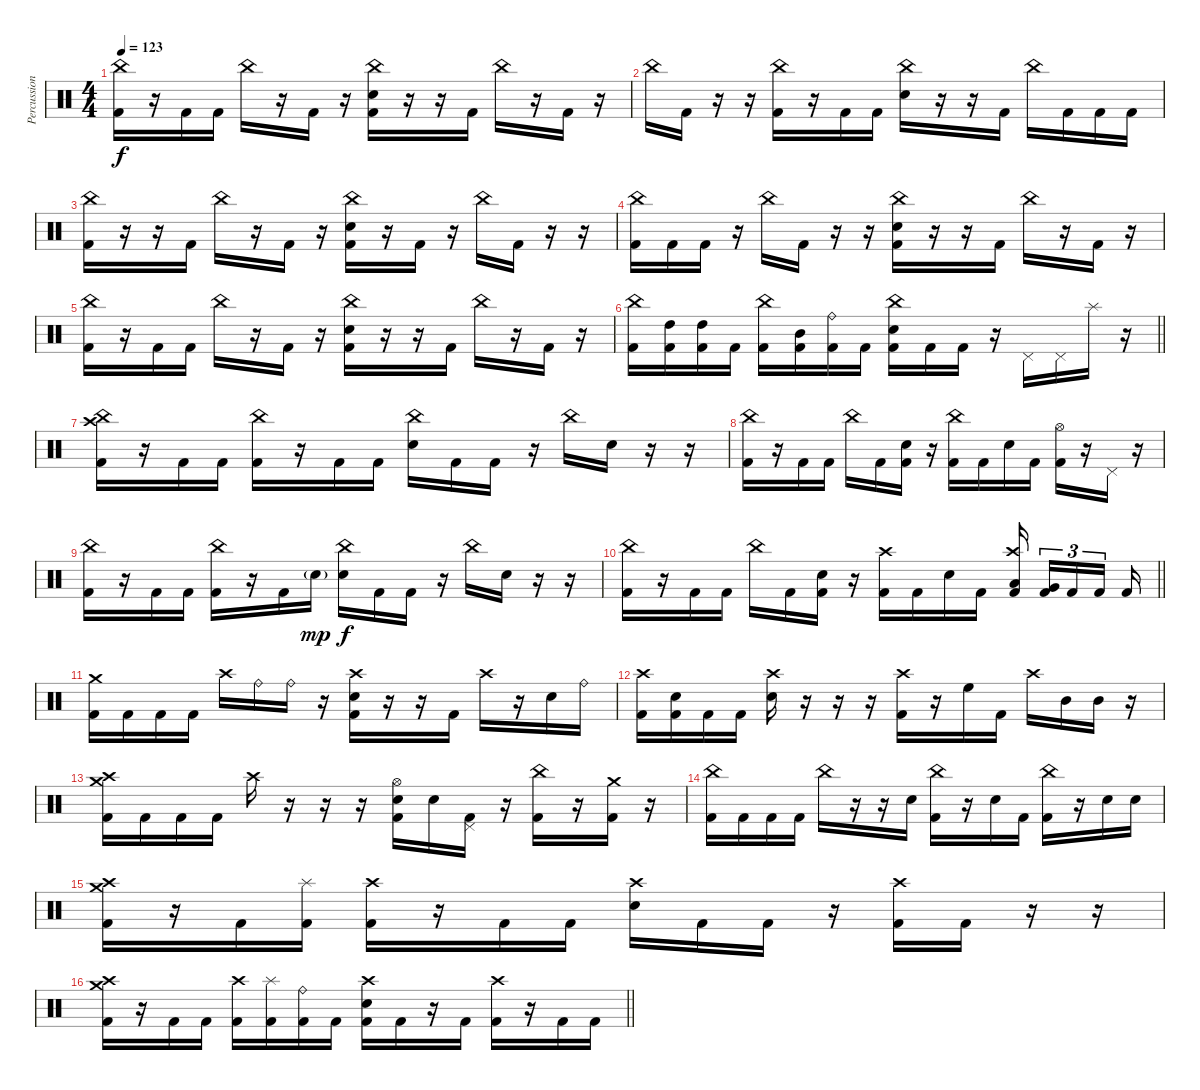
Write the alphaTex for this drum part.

\track ("Percussion" "Percussion") {instrument percussion}
\staff {score}
\articulation defaults
\ts (4 4)
\tempo 123
\clef neutral
\ks c
("China (hit)" "Kick (hit) 2").16{dy f} r.16 "Kick (hit) 2".16 "Kick (hit) 2".16 "China (hit)".16 r.16 "Kick (hit) 2".16 r.16 ("China (hit)" "Electric Snare (hit)" "Kick (hit) 2").16 r.16 r.16 "Kick (hit) 2".16 "China (hit)".16 r.16 "Kick (hit) 2".16 r.16 |
"China (hit)".16 "Kick (hit) 2".16 r.16 r.16 ("China (hit)" "Kick (hit) 2").16 r.16 "Kick (hit) 2".16 "Kick (hit) 2".16 ("China (hit)" "Electric Snare (hit)").16 r.16 r.16 "Kick (hit) 2".16 "China (hit)".16 "Kick (hit) 2".16 "Kick (hit) 2".16 "Kick (hit) 2".16 |
("China (hit)" "Kick (hit) 2").16 r.16 r.16 "Kick (hit) 2".16 "China (hit)".16 r.16 "Kick (hit) 2".16 r.16 ("China (hit)" "Electric Snare (hit)" "Kick (hit) 2").16 r.16 "Kick (hit) 2".16 r.16 "China (hit)".16 "Kick (hit) 2".16 r.16 r.16 |
("China (hit)" "Kick (hit) 2").16 "Kick (hit) 2".16 "Kick (hit) 2".16 r.16 "China (hit)".16 "Kick (hit) 2".16 r.16 r.16 ("China (hit)" "Electric Snare (hit)" "Kick (hit) 2").16 r.16 r.16 "Kick (hit) 2".16 "China (hit)".16 r.16 "Kick (hit) 2".16 r.16 |
("China (hit)" "Kick (hit) 2").16 r.16 "Kick (hit) 2".16 "Kick (hit) 2".16 "China (hit)".16 r.16 "Kick (hit) 2".16 r.16 ("China (hit)" "Electric Snare (hit)" "Kick (hit) 2").16 r.16 r.16 "Kick (hit) 2".16 "China (hit)".16 r.16 "Kick (hit) 2".16 r.16 |
\barLineRight lightlight
("China (hit)" "Kick (hit) 2").16 ("High Tom (hit)" "Kick (hit) 2").16 ("High Tom (hit)" "Kick (hit) 2").16 "Kick (hit) 2".16 ("China (hit)" "Kick (hit) 2").16 ("Mid Tom (hit)" "Kick (hit) 2").16 ("Ride (bell)" "Kick (hit) 2").16 "Kick (hit) 2".16 ("China (hit)" "Electric Snare (hit)" "Kick (hit) 2").16 "Kick (hit) 2".16 "Kick (hit) 2".16 r.16 "Pedal Hi-Hat (hit)".16 "Pedal Hi-Hat (hit)".16 "Splash (hit)".16 r.16 |
("Crash high (hit)" "China (hit)" "Kick (hit) 2").16 r.16 "Kick (hit) 2".16 "Kick (hit) 2".16 ("China (hit)" "Kick (hit) 2").16 r.16 "Kick (hit) 2".16 "Kick (hit) 2".16 ("China (hit)" "Electric Snare (hit)").16 "Kick (hit) 2".16 "Kick (hit) 2".16 r.16 "China (hit)".16 "Electric Snare (hit)".16 r.16 r.16 |
("China (hit)" "Kick (hit) 2").16 r.16 "Kick (hit) 2".16 "Kick (hit) 2".16 "China (hit)".16 "Kick (hit) 2".16 ("Electric Snare (hit)" "Kick (hit) 2").16 r.16 ("China (hit)" "Kick (hit) 2").16 "Kick (hit) 2".16 "Electric Snare (hit)".16 "Kick (hit) 2".16 ("Hi-Hat (open)" "Kick (hit) 2").16 r.16 "Pedal Hi-Hat (hit)".16 r.16 |
("China (hit)" "Kick (hit) 2").16 r.16 "Kick (hit) 2".16 "Kick (hit) 2".16 ("China (hit)" "Kick (hit) 2").16 r.16 "Kick (hit) 2".16 "Electric Snare (hit)"{g}.16{dy mp} ("China (hit)" "Electric Snare (hit)").16{dy f} "Kick (hit) 2".16 "Kick (hit) 2".16 r.16 "China (hit)".16 "Electric Snare (hit)".16 r.16 r.16 |
\barLineRight lightlight
("China (hit)" "Kick (hit) 2").16 r.16 "Kick (hit) 2".16 "Kick (hit) 2".16 "China (hit)".16 "Kick (hit) 2".16 ("Electric Snare (hit)" "Kick (hit) 2").16 r.16 ("Crash high (hit)" "Kick (hit) 2").16 "Kick (hit) 2".16 "Electric Snare (hit)".16 "Kick (hit) 2".16 ("Crash high (hit)" "Low Tom (hit)" "Kick (hit) 2").16{beam splitsecondary} ("Very Low Tom (hit)" "Kick (hit) 2").16{tu (3 2)} "Kick (hit) 2".16{tu (3 2)} "Kick (hit) 2".16{tu (3 2) beam splitsecondary} "Kick (hit) 2".16 |
("Crash medium (hit)" "Kick (hit) 2").16 "Kick (hit) 2".16 "Kick (hit) 2".16 "Kick (hit) 2".16 "Crash high (hit)".16 "Ride (bell)".16 "Ride (bell)".16 r.16 ("Crash high (hit)" "Electric Snare (hit)" "Kick (hit) 2").16 r.16 r.16 "Kick (hit) 2".16 "Crash high (hit)".16 r.16 "Electric Snare (hit)".16 "Ride (bell)".16 |
("Crash high (hit)" "Kick (hit) 2").16 ("Electric Snare (hit)" "Kick (hit) 2").16 "Kick (hit) 2".16 "Kick (hit) 2".16 ("Crash high (hit)" "Electric Snare (hit)").16 r.16 r.16 r.16 ("Crash high (hit)" "Kick (hit) 2").16 r.16 "High Floor Tom (hit)".16 "Kick (hit) 2".16 "Crash high (hit)".16 "Mid Tom (hit)".16 "Mid Tom (hit)".16 r.16 |
("Crash high (hit)" "Crash medium (hit)" "Kick (hit) 2").16 "Kick (hit) 2".16 "Kick (hit) 2".16 "Kick (hit) 2".16 "Crash high (hit)".16 r.16 r.16 r.16 ("Hi-Hat (open)" "Electric Snare (hit)" "Kick (hit) 2").16 "Electric Snare (hit)".16 ("Pedal Hi-Hat (hit)" "Kick (hit) 2").16 r.16 ("China (hit)" "Kick (hit) 2").16 r.16 ("Crash medium (hit)" "Kick (hit) 2").16 r.16 |
("China (hit)" "Kick (hit) 2").16 "Kick (hit) 2".16 "Kick (hit) 2".16 "Kick (hit) 2".16 "China (hit)".16 r.16 r.16 "Electric Snare (hit)".16 ("China (hit)" "Kick (hit) 2").16 r.16 "Electric Snare (hit)".16 "Kick (hit) 2".16 ("China (hit)" "Kick (hit) 2").16 r.16 "Electric Snare (hit)".16 "Electric Snare (hit)".16 |
("Crash high (hit)" "Crash medium (hit)" "Kick (hit) 2").16 r.16 "Kick (hit) 2".16 ("Splash (hit)" "Kick (hit) 2").16 ("Crash high (hit)" "Kick (hit) 2").16 r.16 "Kick (hit) 2".16 "Kick (hit) 2".16 ("Crash high (hit)" "Electric Snare (hit)").16 "Kick (hit) 2".16 "Kick (hit) 2".16 r.16 ("Crash high (hit)" "Kick (hit) 2").16 "Kick (hit) 2".16 r.16 r.16 |
\barLineRight lightlight
("Crash medium (hit)" "Crash high (hit)" "Kick (hit) 2").16 r.16 "Kick (hit) 2".16 "Kick (hit) 2".16 ("Crash high (hit)" "Kick (hit) 2").16 ("Splash (hit)" "Kick (hit) 2").16 ("Ride (bell)" "Kick (hit) 2").16 "Kick (hit) 2".16 ("Crash high (hit)" "Electric Snare (hit)" "Kick (hit) 2").16 "Kick (hit) 2".16 r.16 "Kick (hit) 2".16 ("Crash high (hit)" "Kick (hit) 2").16 r.16 "Kick (hit) 2".16 "Kick (hit) 2".16
